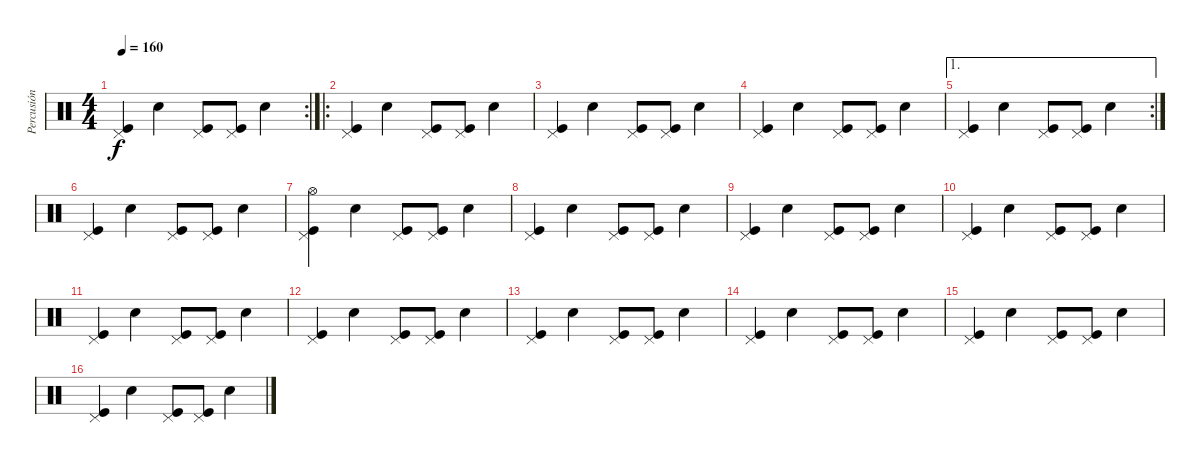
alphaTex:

\track ("Percusión" "Percusión") {instrument percussion}
\staff {score}
\articulation defaults
\rc 2
\ts (4 4)
\tempo 160
\clef neutral
\ks c
("Pedal Hi-Hat (hit)" "Kick (hit)").4{dy f} "Snare (hit) 2".4 ("Pedal Hi-Hat (hit)" "Kick (hit)").8 ("Pedal Hi-Hat (hit)" "Kick (hit)").8 "Snare (hit) 2".4 |
\ro
("Pedal Hi-Hat (hit)" "Kick (hit)").4 "Snare (hit) 2".4 ("Pedal Hi-Hat (hit)" "Kick (hit)").8 ("Pedal Hi-Hat (hit)" "Kick (hit)").8 "Snare (hit) 2".4 |
("Pedal Hi-Hat (hit)" "Kick (hit)").4 "Snare (hit) 2".4 ("Pedal Hi-Hat (hit)" "Kick (hit)").8 ("Pedal Hi-Hat (hit)" "Kick (hit)").8 "Snare (hit) 2".4 |
("Pedal Hi-Hat (hit)" "Kick (hit)").4 "Snare (hit) 2".4 ("Pedal Hi-Hat (hit)" "Kick (hit)").8 ("Pedal Hi-Hat (hit)" "Kick (hit)").8 "Snare (hit) 2".4 |
\ae 1
\rc 2
("Pedal Hi-Hat (hit)" "Kick (hit)").4 "Snare (hit) 2".4 ("Pedal Hi-Hat (hit)" "Kick (hit)").8 ("Pedal Hi-Hat (hit)" "Kick (hit)").8 "Snare (hit) 2".4 |
("Pedal Hi-Hat (hit)" "Kick (hit)").4 "Snare (hit) 2".4 ("Pedal Hi-Hat (hit)" "Kick (hit)").8 ("Pedal Hi-Hat (hit)" "Kick (hit)").8 "Snare (hit) 2".4 |
("Pedal Hi-Hat (hit)" "Hi-Hat (open)" "Kick (hit)").4 "Snare (hit) 2".4 ("Pedal Hi-Hat (hit)" "Kick (hit)").8 ("Pedal Hi-Hat (hit)" "Kick (hit)").8 "Snare (hit) 2".4 |
("Pedal Hi-Hat (hit)" "Kick (hit)").4 "Snare (hit) 2".4 ("Pedal Hi-Hat (hit)" "Kick (hit)").8 ("Pedal Hi-Hat (hit)" "Kick (hit)").8 "Snare (hit) 2".4 |
("Pedal Hi-Hat (hit)" "Kick (hit)").4 "Snare (hit) 2".4 ("Pedal Hi-Hat (hit)" "Kick (hit)").8 ("Pedal Hi-Hat (hit)" "Kick (hit)").8 "Snare (hit) 2".4 |
("Pedal Hi-Hat (hit)" "Kick (hit)").4 "Snare (hit) 2".4 ("Pedal Hi-Hat (hit)" "Kick (hit)").8 ("Pedal Hi-Hat (hit)" "Kick (hit)").8 "Snare (hit) 2".4 |
("Pedal Hi-Hat (hit)" "Kick (hit)").4 "Snare (hit) 2".4 ("Pedal Hi-Hat (hit)" "Kick (hit)").8 ("Pedal Hi-Hat (hit)" "Kick (hit)").8 "Snare (hit) 2".4 |
("Pedal Hi-Hat (hit)" "Kick (hit)").4 "Snare (hit) 2".4 ("Pedal Hi-Hat (hit)" "Kick (hit)").8 ("Pedal Hi-Hat (hit)" "Kick (hit)").8 "Snare (hit) 2".4 |
("Pedal Hi-Hat (hit)" "Kick (hit)").4 "Snare (hit) 2".4 ("Pedal Hi-Hat (hit)" "Kick (hit)").8 ("Pedal Hi-Hat (hit)" "Kick (hit)").8 "Snare (hit) 2".4 |
("Pedal Hi-Hat (hit)" "Kick (hit)").4 "Snare (hit) 2".4 ("Pedal Hi-Hat (hit)" "Kick (hit)").8 ("Pedal Hi-Hat (hit)" "Kick (hit)").8 "Snare (hit) 2".4 |
("Pedal Hi-Hat (hit)" "Kick (hit)").4 "Snare (hit) 2".4 ("Pedal Hi-Hat (hit)" "Kick (hit)").8 ("Pedal Hi-Hat (hit)" "Kick (hit)").8 "Snare (hit) 2".4 |
("Pedal Hi-Hat (hit)" "Kick (hit)").4 "Snare (hit) 2".4 ("Pedal Hi-Hat (hit)" "Kick (hit)").8 ("Pedal Hi-Hat (hit)" "Kick (hit)").8 "Snare (hit) 2".4
